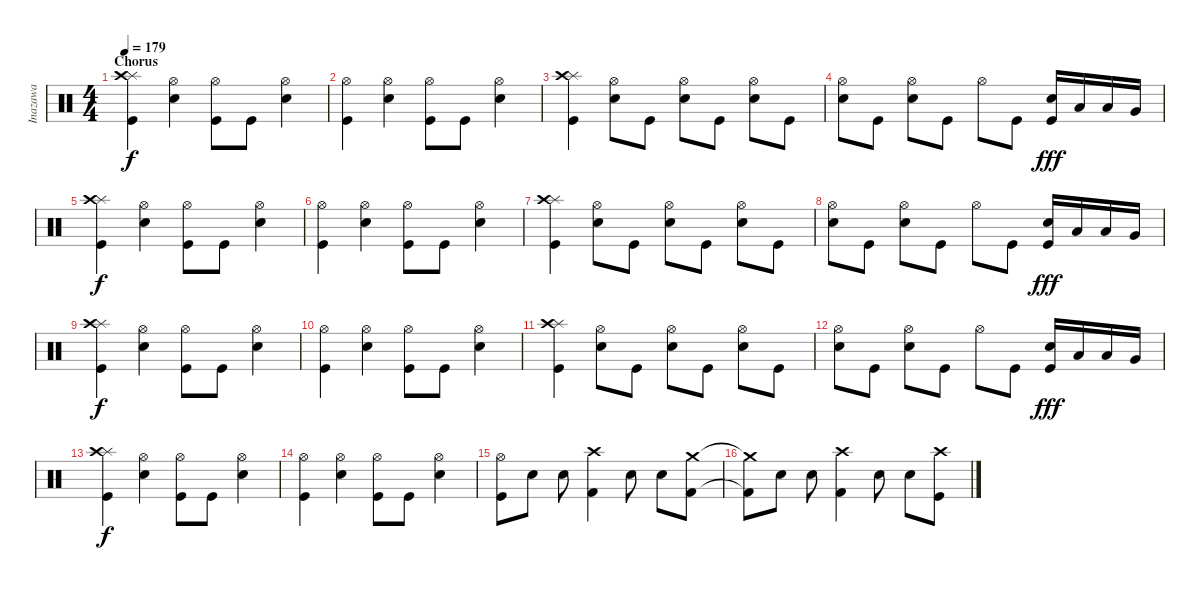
\track ("Inazawa" "Inazawa") {instrument percussion}
\staff {score}
\articulation defaults
\ts (4 4)
\section ("" "Chorus")
\tempo 179
\clef neutral
\ks c
("Splash (hit)" "Crash high (hit)" "Kick (hit)").4{dy f} ("Hi-Hat (open)" "Snare (hit) 2").4 ("Hi-Hat (open)" "Kick (hit)").8 "Kick (hit)".8 ("Hi-Hat (open)" "Snare (hit) 2").4 |
("Hi-Hat (open)" "Kick (hit)").4 ("Hi-Hat (open)" "Snare (hit) 2").4 ("Hi-Hat (open)" "Kick (hit)").8 "Kick (hit)".8 ("Hi-Hat (open)" "Snare (hit) 2").4 |
("Splash (hit)" "Crash high (hit)" "Kick (hit)").4 ("Hi-Hat (open)" "Snare (hit) 2").8 "Kick (hit)".8 ("Hi-Hat (open)" "Snare (hit) 2").8 "Kick (hit)".8 ("Hi-Hat (open)" "Snare (hit) 2").8 "Kick (hit)".8 |
("Hi-Hat (open)" "Snare (hit) 2").8 "Kick (hit)".8 ("Hi-Hat (open)" "Snare (hit) 2").8 "Kick (hit)".8 "Hi-Hat (open)".8 "Kick (hit)".8 ("Snare (hit) 2" "Kick (hit)").16{dy fff} "Low Tom (hit)".16 "Low Tom (hit)".16 "Very Low Tom (hit)".16 |
("Splash (hit)" "Crash high (hit)" "Kick (hit)").4{dy f} ("Hi-Hat (open)" "Snare (hit) 2").4 ("Hi-Hat (open)" "Kick (hit)").8 "Kick (hit)".8 ("Hi-Hat (open)" "Snare (hit) 2").4 |
("Hi-Hat (open)" "Kick (hit)").4 ("Hi-Hat (open)" "Snare (hit) 2").4 ("Hi-Hat (open)" "Kick (hit)").8 "Kick (hit)".8 ("Hi-Hat (open)" "Snare (hit) 2").4 |
("Splash (hit)" "Crash high (hit)" "Kick (hit)").4 ("Hi-Hat (open)" "Snare (hit) 2").8 "Kick (hit)".8 ("Hi-Hat (open)" "Snare (hit) 2").8 "Kick (hit)".8 ("Hi-Hat (open)" "Snare (hit) 2").8 "Kick (hit)".8 |
("Hi-Hat (open)" "Snare (hit) 2").8 "Kick (hit)".8 ("Hi-Hat (open)" "Snare (hit) 2").8 "Kick (hit)".8 "Hi-Hat (open)".8 "Kick (hit)".8 ("Snare (hit) 2" "Kick (hit)").16{dy fff} "Low Tom (hit)".16 "Low Tom (hit)".16 "Very Low Tom (hit)".16 |
("Splash (hit)" "Crash high (hit)" "Kick (hit)").4{dy f} ("Hi-Hat (open)" "Snare (hit) 2").4 ("Hi-Hat (open)" "Kick (hit)").8 "Kick (hit)".8 ("Hi-Hat (open)" "Snare (hit) 2").4 |
("Hi-Hat (open)" "Kick (hit)").4 ("Hi-Hat (open)" "Snare (hit) 2").4 ("Hi-Hat (open)" "Kick (hit)").8 "Kick (hit)".8 ("Hi-Hat (open)" "Snare (hit) 2").4 |
("Splash (hit)" "Crash high (hit)" "Kick (hit)").4 ("Hi-Hat (open)" "Snare (hit) 2").8 "Kick (hit)".8 ("Hi-Hat (open)" "Snare (hit) 2").8 "Kick (hit)".8 ("Hi-Hat (open)" "Snare (hit) 2").8 "Kick (hit)".8 |
("Hi-Hat (open)" "Snare (hit) 2").8 "Kick (hit)".8 ("Hi-Hat (open)" "Snare (hit) 2").8 "Kick (hit)".8 "Hi-Hat (open)".8 "Kick (hit)".8 ("Snare (hit) 2" "Kick (hit)").16{dy fff} "Low Tom (hit)".16 "Low Tom (hit)".16 "Very Low Tom (hit)".16 |
("Splash (hit)" "Crash high (hit)" "Kick (hit)").4{dy f} ("Hi-Hat (open)" "Snare (hit) 2").4 ("Hi-Hat (open)" "Kick (hit)").8 "Kick (hit)".8 ("Hi-Hat (open)" "Snare (hit) 2").4 |
("Hi-Hat (open)" "Kick (hit)").4 ("Hi-Hat (open)" "Snare (hit) 2").4 ("Hi-Hat (open)" "Kick (hit)").8 "Kick (hit)".8 ("Hi-Hat (open)" "Snare (hit) 2").4 |
("Hi-Hat (open)" "Kick (hit)").8 "Snare (hit) 2".8 "Snare (hit) 2".8 ("Crash high (hit)" "Kick (hit) 2").4 "Snare (hit) 2".8 "Snare (hit) 2".8 ("Crash medium (hit)" "Kick (hit) 2").8 |
("Crash medium (hit)"{t} "Kick (hit) 2"{t}).8 "Snare (hit) 2".8 "Snare (hit) 2".8 ("Crash high (hit)" "Kick (hit) 2").4 "Snare (hit) 2".8 "Snare (hit) 2".8 ("Crash high (hit)" "Kick (hit)").8
